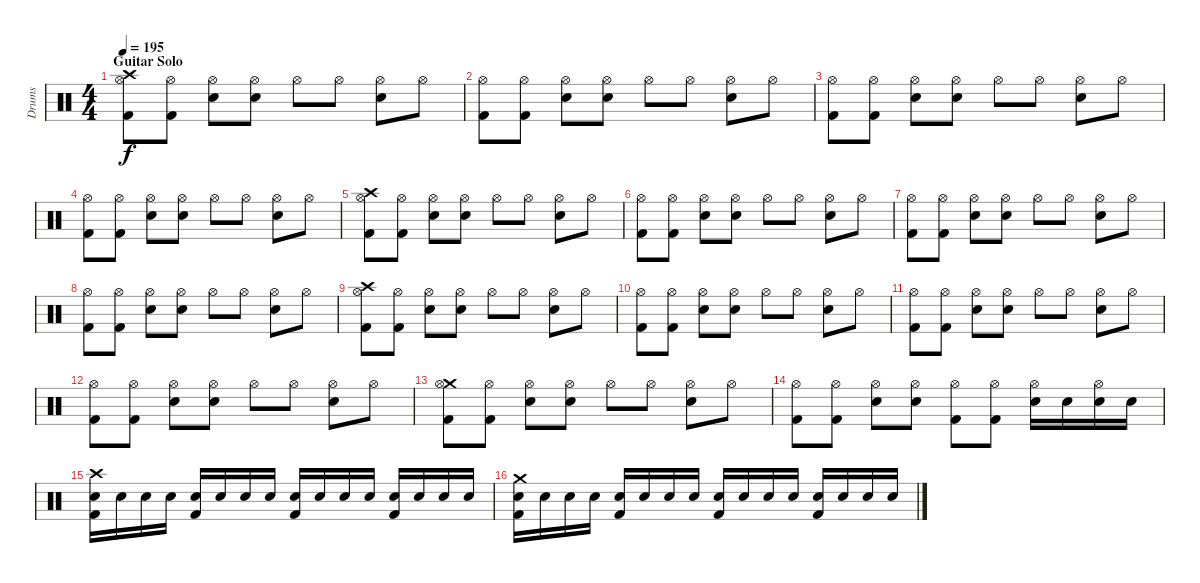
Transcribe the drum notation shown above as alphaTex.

\track ("Drums" "Drums") {instrument percussion}
\staff {score}
\articulation defaults
\ts (4 4)
\section ("" "Guitar Solo")
\tempo 195
\clef neutral
\ks c
("Crash high (hit)" "Hi-Hat (open)" "Kick (hit) 2").8{dy f} ("Hi-Hat (open)" "Kick (hit) 2").8 ("Hi-Hat (open)" "Snare (hit) 2").8 ("Hi-Hat (open)" "Snare (hit) 2").8 "Hi-Hat (open)".8 "Hi-Hat (open)".8 ("Hi-Hat (open)" "Snare (hit) 2").8 "Hi-Hat (open)".8 |
("Hi-Hat (open)" "Kick (hit) 2").8 ("Hi-Hat (open)" "Kick (hit) 2").8 ("Hi-Hat (open)" "Snare (hit) 2").8 ("Hi-Hat (open)" "Snare (hit) 2").8 "Hi-Hat (open)".8 "Hi-Hat (open)".8 ("Hi-Hat (open)" "Snare (hit) 2").8 "Hi-Hat (open)".8 |
("Hi-Hat (open)" "Kick (hit) 2").8 ("Hi-Hat (open)" "Kick (hit) 2").8 ("Hi-Hat (open)" "Snare (hit) 2").8 ("Hi-Hat (open)" "Snare (hit) 2").8 "Hi-Hat (open)".8 "Hi-Hat (open)".8 ("Hi-Hat (open)" "Snare (hit) 2").8 "Hi-Hat (open)".8 |
("Hi-Hat (open)" "Kick (hit) 2").8 ("Hi-Hat (open)" "Kick (hit) 2").8 ("Hi-Hat (open)" "Snare (hit) 2").8 ("Hi-Hat (open)" "Snare (hit) 2").8 "Hi-Hat (open)".8 "Hi-Hat (open)".8 ("Hi-Hat (open)" "Snare (hit) 2").8 "Hi-Hat (open)".8 |
("Crash high (hit)" "Hi-Hat (open)" "Kick (hit) 2").8 ("Hi-Hat (open)" "Kick (hit) 2").8 ("Hi-Hat (open)" "Snare (hit) 2").8 ("Hi-Hat (open)" "Snare (hit) 2").8 "Hi-Hat (open)".8 "Hi-Hat (open)".8 ("Hi-Hat (open)" "Snare (hit) 2").8 "Hi-Hat (open)".8 |
("Hi-Hat (open)" "Kick (hit) 2").8 ("Hi-Hat (open)" "Kick (hit) 2").8 ("Hi-Hat (open)" "Snare (hit) 2").8 ("Hi-Hat (open)" "Snare (hit) 2").8 "Hi-Hat (open)".8 "Hi-Hat (open)".8 ("Hi-Hat (open)" "Snare (hit) 2").8 "Hi-Hat (open)".8 |
("Hi-Hat (open)" "Kick (hit) 2").8 ("Hi-Hat (open)" "Kick (hit) 2").8 ("Hi-Hat (open)" "Snare (hit) 2").8 ("Hi-Hat (open)" "Snare (hit) 2").8 "Hi-Hat (open)".8 "Hi-Hat (open)".8 ("Hi-Hat (open)" "Snare (hit) 2").8 "Hi-Hat (open)".8 |
("Hi-Hat (open)" "Kick (hit) 2").8 ("Hi-Hat (open)" "Kick (hit) 2").8 ("Hi-Hat (open)" "Snare (hit) 2").8 ("Hi-Hat (open)" "Snare (hit) 2").8 "Hi-Hat (open)".8 "Hi-Hat (open)".8 ("Hi-Hat (open)" "Snare (hit) 2").8 "Hi-Hat (open)".8 |
("Crash high (hit)" "Hi-Hat (open)" "Kick (hit) 2").8 ("Hi-Hat (open)" "Kick (hit) 2").8 ("Hi-Hat (open)" "Snare (hit) 2").8 ("Hi-Hat (open)" "Snare (hit) 2").8 "Hi-Hat (open)".8 "Hi-Hat (open)".8 ("Hi-Hat (open)" "Snare (hit) 2").8 "Hi-Hat (open)".8 |
("Hi-Hat (open)" "Kick (hit) 2").8 ("Hi-Hat (open)" "Kick (hit) 2").8 ("Hi-Hat (open)" "Snare (hit) 2").8 ("Hi-Hat (open)" "Snare (hit) 2").8 "Hi-Hat (open)".8 "Hi-Hat (open)".8 ("Hi-Hat (open)" "Snare (hit) 2").8 "Hi-Hat (open)".8 |
("Hi-Hat (open)" "Kick (hit) 2").8 ("Hi-Hat (open)" "Kick (hit) 2").8 ("Hi-Hat (open)" "Snare (hit) 2").8 ("Hi-Hat (open)" "Snare (hit) 2").8 "Hi-Hat (open)".8 "Hi-Hat (open)".8 ("Hi-Hat (open)" "Snare (hit) 2").8 "Hi-Hat (open)".8 |
("Hi-Hat (open)" "Kick (hit) 2").8 ("Hi-Hat (open)" "Kick (hit) 2").8 ("Hi-Hat (open)" "Snare (hit) 2").8 ("Hi-Hat (open)" "Snare (hit) 2").8 "Hi-Hat (open)".8 "Hi-Hat (open)".8 ("Hi-Hat (open)" "Snare (hit) 2").8 "Hi-Hat (open)".8 |
("Crash medium (hit)" "Hi-Hat (open)" "Kick (hit) 2").8 ("Hi-Hat (open)" "Kick (hit) 2").8 ("Hi-Hat (open)" "Snare (hit) 2").8 ("Hi-Hat (open)" "Snare (hit) 2").8 "Hi-Hat (open)".8 "Hi-Hat (open)".8 ("Hi-Hat (open)" "Snare (hit) 2").8 "Hi-Hat (open)".8 |
("Hi-Hat (open)" "Kick (hit) 2").8 ("Hi-Hat (open)" "Kick (hit) 2").8 ("Hi-Hat (open)" "Snare (hit) 2").8 ("Hi-Hat (open)" "Snare (hit) 2").8 ("Hi-Hat (open)" "Kick (hit) 2").8 ("Hi-Hat (open)" "Kick (hit) 2").8 ("Hi-Hat (open)" "Snare (hit) 2").16 "Snare (hit) 2".16 ("Hi-Hat (open)" "Snare (hit) 2").16 "Snare (hit) 2".16 |
("Crash high (hit)" "Snare (hit) 2" "Kick (hit) 2").16 "Snare (hit) 2".16 "Snare (hit) 2".16 "Snare (hit) 2".16 ("Snare (hit) 2" "Kick (hit) 2").16 "Snare (hit) 2".16 "Snare (hit) 2".16 "Snare (hit) 2".16 ("Snare (hit) 2" "Kick (hit) 2").16 "Snare (hit) 2".16 "Snare (hit) 2".16 "Snare (hit) 2".16 ("Snare (hit) 2" "Kick (hit) 2").16 "Snare (hit) 2".16 "Snare (hit) 2".16 "Snare (hit) 2".16 |
("Crash medium (hit)" "Snare (hit) 2" "Kick (hit) 2").16 "Snare (hit) 2".16 "Snare (hit) 2".16 "Snare (hit) 2".16 ("Snare (hit) 2" "Kick (hit) 2").16 "Snare (hit) 2".16 "Snare (hit) 2".16 "Snare (hit) 2".16 ("Snare (hit) 2" "Kick (hit) 2").16 "Snare (hit) 2".16 "Snare (hit) 2".16 "Snare (hit) 2".16 ("Snare (hit) 2" "Kick (hit) 2").16 "Snare (hit) 2".16 "Snare (hit) 2".16 "Snare (hit) 2".16
